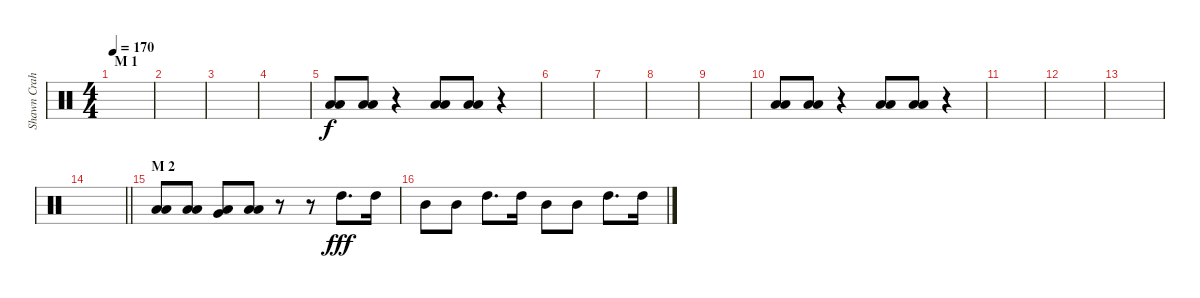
\track ("Shawn Crahan" "Shawn Crah") {instrument percussion}
\staff {score}
\articulation defaults
\ts (4 4)
\section ("" "M 1")
\tempo 170
\clef neutral
\ks c
|
|
|
|
("Low Floor Tom (hit)" "Low Floor Tom (hit)").8 ("Low Floor Tom (hit)" "Low Floor Tom (hit)").8 r.4 ("Low Floor Tom (hit)" "Low Floor Tom (hit)").8 ("Low Floor Tom (hit)" "Low Floor Tom (hit)").8 r.4 |
|
|
|
|
("Low Floor Tom (hit)" "Low Floor Tom (hit)").8 ("Low Floor Tom (hit)" "Low Floor Tom (hit)").8 r.4 ("Low Floor Tom (hit)" "Low Floor Tom (hit)").8 ("Low Floor Tom (hit)" "Low Floor Tom (hit)").8 r.4 |
|
|
|
\barLineRight lightlight
|
\section ("" "M 2")
("Low Floor Tom (hit)" "Low Floor Tom (hit)").8 ("Low Floor Tom (hit)" "Low Floor Tom (hit)").8 ("Very Low Tom (hit)" "Low Floor Tom (hit)").8 ("Low Floor Tom (hit)" "Low Floor Tom (hit)").8 r.8 r.8 "High Tom (hit)".8{d dy fff} "High Tom (hit)".16 |
"Mid Tom (hit)".8 "Mid Tom (hit)".8 "High Tom (hit)".8{d} "High Tom (hit)".16 "Mid Tom (hit)".8 "Mid Tom (hit)".8 "High Tom (hit)".8{d} "High Tom (hit)".16
